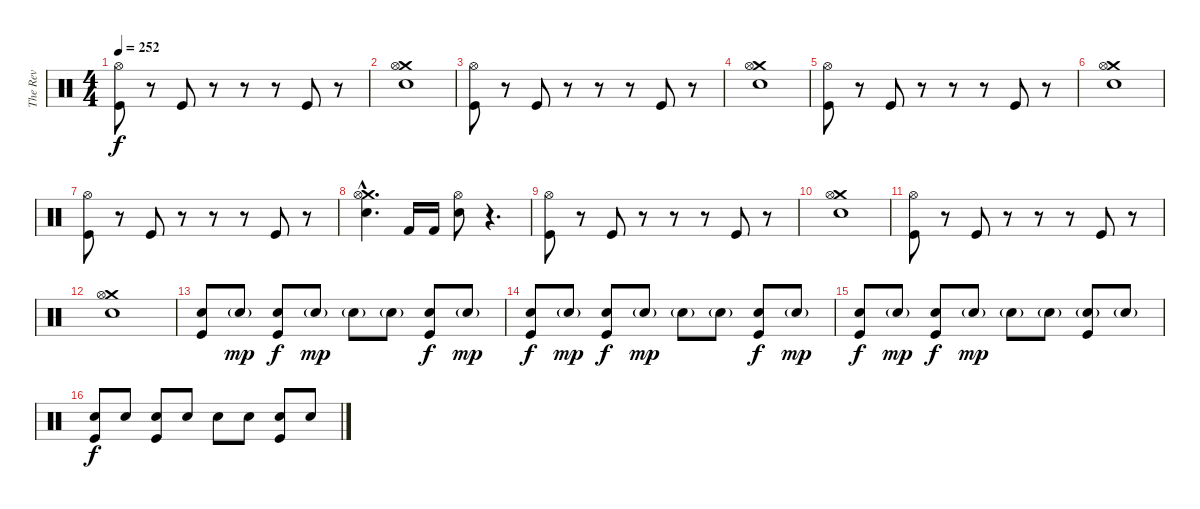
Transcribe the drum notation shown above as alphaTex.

\track ("The Rev" "The Rev") {instrument percussion}
\staff {score}
\articulation defaults
\ts (4 4)
\tempo 252
\clef neutral
\ks c
("Hi-Hat (open)" "Kick (hit)").8{dy f} r.8 "Kick (hit)".8 r.8 r.8 r.8 "Kick (hit)".8 r.8 |
("Crash medium (hit)" "Hi-Hat (open)" "Electric Snare (hit)").1 |
("Hi-Hat (open)" "Kick (hit)").8 r.8 "Kick (hit)".8 r.8 r.8 r.8 "Kick (hit)".8 r.8 |
("Crash medium (hit)" "Hi-Hat (open)" "Electric Snare (hit)").1 |
("Hi-Hat (open)" "Kick (hit)").8 r.8 "Kick (hit)".8 r.8 r.8 r.8 "Kick (hit)".8 r.8 |
("Crash medium (hit)" "Hi-Hat (open)" "Electric Snare (hit)").1 |
("Hi-Hat (open)" "Kick (hit)").8 r.8 "Kick (hit)".8 r.8 r.8 r.8 "Kick (hit)".8 r.8 |
("Crash medium (hit)"{hac} "Hi-Hat (open)"{hac} "Electric Snare (hit)"{hac}).4{d} "Kick (hit) 2".16 "Kick (hit) 2".16 ("Hi-Hat (open)" "Electric Snare (hit)").8 r.4{d} |
("Hi-Hat (open)" "Kick (hit)").8 r.8 "Kick (hit)".8 r.8 r.8 r.8 "Kick (hit)".8 r.8 |
("Crash medium (hit)" "Hi-Hat (open)" "Electric Snare (hit)").1 |
("Hi-Hat (open)" "Kick (hit)").8 r.8 "Kick (hit)".8 r.8 r.8 r.8 "Kick (hit)".8 r.8 |
("Crash medium (hit)" "Hi-Hat (open)" "Electric Snare (hit)").1 |
("Electric Snare (hit)" "Kick (hit)").8 "Electric Snare (hit)"{g}.8{dy mp} ("Electric Snare (hit)" "Kick (hit)").8{dy f} "Electric Snare (hit)"{g}.8{dy mp} "Electric Snare (hit)"{g}.8 "Electric Snare (hit)"{g}.8 ("Electric Snare (hit)" "Kick (hit)").8{dy f} "Electric Snare (hit)"{g}.8{dy mp} |
("Electric Snare (hit)" "Kick (hit)").8{dy f} "Electric Snare (hit)"{g}.8{dy mp} ("Electric Snare (hit)" "Kick (hit)").8{dy f} "Electric Snare (hit)"{g}.8{dy mp} "Electric Snare (hit)"{g}.8 "Electric Snare (hit)"{g}.8 ("Electric Snare (hit)" "Kick (hit)").8{dy f} "Electric Snare (hit)"{g}.8{dy mp} |
("Electric Snare (hit)" "Kick (hit)").8{dy f} "Electric Snare (hit)"{g}.8{dy mp} ("Electric Snare (hit)" "Kick (hit)").8{dy f} "Electric Snare (hit)"{g}.8{dy mp} "Electric Snare (hit)"{g}.8 "Electric Snare (hit)"{g}.8 ("Electric Snare (hit)"{g} "Kick (hit)").8 "Electric Snare (hit)"{g}.8 |
("Electric Snare (hit)" "Kick (hit)").8{dy f} "Electric Snare (hit)".8 ("Electric Snare (hit)" "Kick (hit)").8 "Electric Snare (hit)".8 "Electric Snare (hit)".8 "Electric Snare (hit)".8 ("Electric Snare (hit)" "Kick (hit)").8 "Electric Snare (hit)".8
